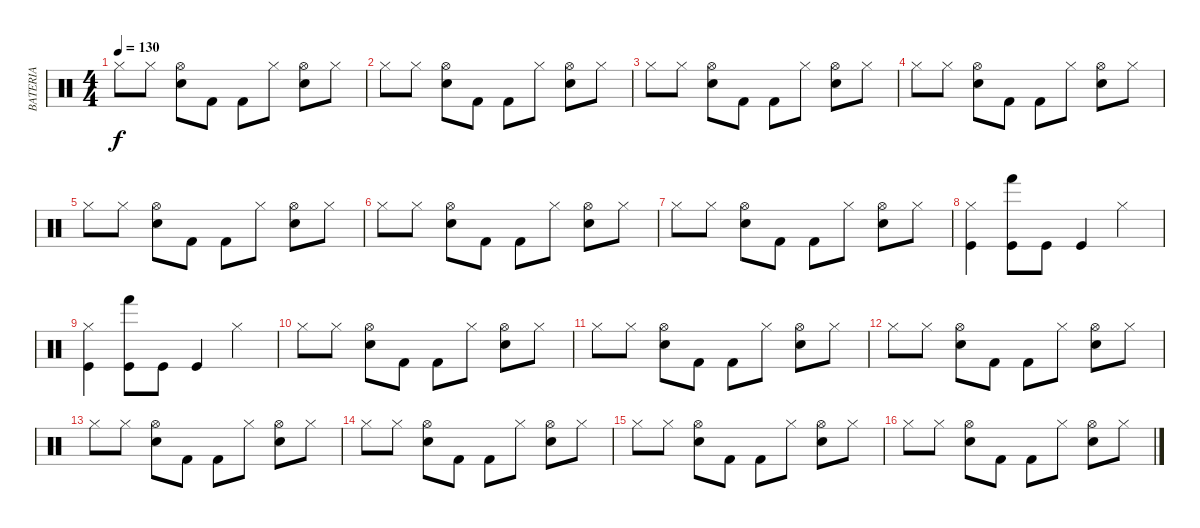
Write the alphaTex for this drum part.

\track ("BATERIA" "BATERIA") {mute instrument percussion}
\staff {score}
\articulation defaults
\ts (4 4)
\tempo 130
\clef neutral
\ks c "Hi-Hat (closed)".8{dy f} "Hi-Hat (closed)".8
("Snare (hit) 2" "Hi-Hat (open)").8 "Kick (hit) 2".8 "Kick (hit) 2".8 "Hi-Hat (closed)".8 ("Snare (hit) 2" "Hi-Hat (open)").8 "Hi-Hat (closed)".8 |
"Hi-Hat (closed)".8 "Hi-Hat (closed)".8 ("Snare (hit) 2" "Hi-Hat (open)").8 "Kick (hit) 2".8 "Kick (hit) 2".8 "Hi-Hat (closed)".8 ("Snare (hit) 2" "Hi-Hat (open)").8 "Hi-Hat (closed)".8 |
"Hi-Hat (closed)".8 "Hi-Hat (closed)".8 ("Snare (hit) 2" "Hi-Hat (open)").8 "Kick (hit) 2".8 "Kick (hit) 2".8 "Hi-Hat (closed)".8 ("Snare (hit) 2" "Hi-Hat (open)").8 "Hi-Hat (closed)".8 |
"Hi-Hat (closed)".8 "Hi-Hat (closed)".8 ("Snare (hit) 2" "Hi-Hat (open)").8 "Kick (hit) 2".8 "Kick (hit) 2".8 "Hi-Hat (closed)".8 ("Snare (hit) 2" "Hi-Hat (open)").8 "Hi-Hat (closed)".8 |
"Hi-Hat (closed)".8 "Hi-Hat (closed)".8 ("Snare (hit) 2" "Hi-Hat (open)").8 "Kick (hit) 2".8 "Kick (hit) 2".8 "Hi-Hat (closed)".8 ("Snare (hit) 2" "Hi-Hat (open)").8 "Hi-Hat (closed)".8 |
"Hi-Hat (closed)".8 "Hi-Hat (closed)".8 ("Snare (hit) 2" "Hi-Hat (open)").8 "Kick (hit) 2".8 "Kick (hit) 2".8 "Hi-Hat (closed)".8 ("Snare (hit) 2" "Hi-Hat (open)").8 "Hi-Hat (closed)".8 |
"Hi-Hat (closed)".8 "Hi-Hat (closed)".8 ("Snare (hit) 2" "Hi-Hat (open)").8 "Kick (hit) 2".8 "Kick (hit) 2".8 "Hi-Hat (closed)".8 ("Snare (hit) 2" "Hi-Hat (open)").8 "Hi-Hat (closed)".8 |
("Hi-Hat (closed)" "Kick (hit)").4 ("Kick (hit)" "Hand (hit)").8 "Kick (hit)".8 "Kick (hit)".4 "Hi-Hat (closed)".4 |
("Hi-Hat (closed)" "Kick (hit)").4 ("Kick (hit)" "Hand (hit)").8 "Kick (hit)".8 "Kick (hit)".4 "Hi-Hat (closed)".4 |
"Hi-Hat (closed)".8 "Hi-Hat (closed)".8 ("Snare (hit) 2" "Hi-Hat (open)").8 "Kick (hit) 2".8 "Kick (hit) 2".8 "Hi-Hat (closed)".8 ("Snare (hit) 2" "Hi-Hat (open)").8 "Hi-Hat (closed)".8 |
"Hi-Hat (closed)".8 "Hi-Hat (closed)".8 ("Snare (hit) 2" "Hi-Hat (open)").8 "Kick (hit) 2".8 "Kick (hit) 2".8 "Hi-Hat (closed)".8 ("Snare (hit) 2" "Hi-Hat (open)").8 "Hi-Hat (closed)".8 |
"Hi-Hat (closed)".8 "Hi-Hat (closed)".8 ("Snare (hit) 2" "Hi-Hat (open)").8 "Kick (hit) 2".8 "Kick (hit) 2".8 "Hi-Hat (closed)".8 ("Snare (hit) 2" "Hi-Hat (open)").8 "Hi-Hat (closed)".8 |
"Hi-Hat (closed)".8 "Hi-Hat (closed)".8 ("Snare (hit) 2" "Hi-Hat (open)").8 "Kick (hit) 2".8 "Kick (hit) 2".8 "Hi-Hat (closed)".8 ("Snare (hit) 2" "Hi-Hat (open)").8 "Hi-Hat (closed)".8 |
"Hi-Hat (closed)".8 "Hi-Hat (closed)".8 ("Snare (hit) 2" "Hi-Hat (open)").8 "Kick (hit) 2".8 "Kick (hit) 2".8 "Hi-Hat (closed)".8 ("Snare (hit) 2" "Hi-Hat (open)").8 "Hi-Hat (closed)".8 |
"Hi-Hat (closed)".8 "Hi-Hat (closed)".8 ("Snare (hit) 2" "Hi-Hat (open)").8 "Kick (hit) 2".8 "Kick (hit) 2".8 "Hi-Hat (closed)".8 ("Snare (hit) 2" "Hi-Hat (open)").8 "Hi-Hat (closed)".8 |
"Hi-Hat (closed)".8 "Hi-Hat (closed)".8 ("Snare (hit) 2" "Hi-Hat (open)").8 "Kick (hit) 2".8 "Kick (hit) 2".8 "Hi-Hat (closed)".8 ("Snare (hit) 2" "Hi-Hat (open)").8 "Hi-Hat (closed)".8
